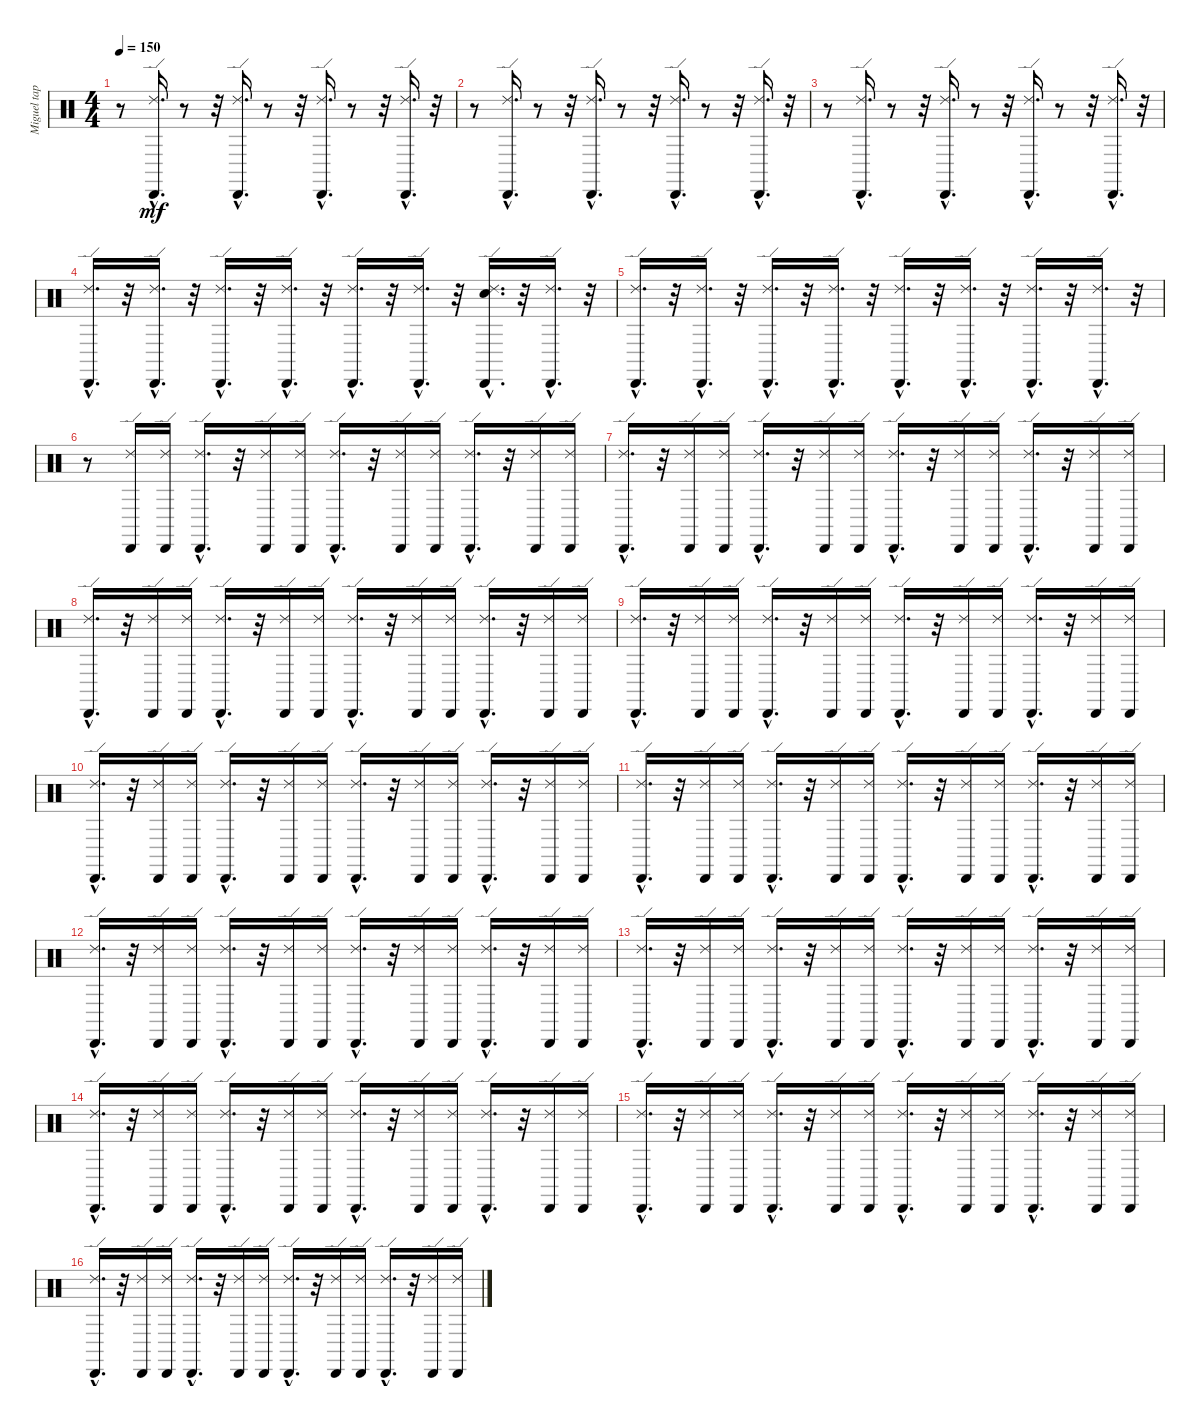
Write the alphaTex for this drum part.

\track ("Miguel tapia" "Miguel tap") {instrument percussion}
\staff {score}
\articulation defaults
\ts (4 4)
\tempo 150
\clef neutral
\ks c
r.8{dy mf} ("Cabasa (hit)"{hac} "Ride (edge) 2"{hac}).16{d} r.8 r.32 ("Ride (edge) 2"{hac} "Cabasa (hit)"{hac}).16{d} r.8 r.32 ("Cabasa (hit)"{hac} "Ride (edge) 2"{hac}).16{d} r.8 r.32 ("Ride (edge) 2"{hac} "Cabasa (hit)"{hac}).16{d} r.32 |
r.8 ("Cabasa (hit)"{hac} "Ride (edge) 2"{hac}).16{d} r.8 r.32 ("Cabasa (hit)"{hac} "Ride (edge) 2"{hac}).16{d} r.8 r.32 ("Cabasa (hit)"{hac} "Ride (edge) 2"{hac}).16{d} r.8 r.32 ("Ride (edge) 2"{hac} "Cabasa (hit)"{hac}).16{d} r.32 |
r.8 ("Cabasa (hit)"{hac} "Ride (edge) 2"{hac}).16{d} r.8 r.32 ("Cabasa (hit)"{hac} "Ride (edge) 2"{hac}).16{d} r.8 r.32 ("Cabasa (hit)"{hac} "Ride (edge) 2"{hac}).16{d} r.8 r.32 ("Ride (edge) 2"{hac} "Cabasa (hit)"{hac}).16{d} r.32 |
("Ride (edge) 2"{hac} "Cabasa (hit)"{hac}).16{d} r.32 ("Ride (edge) 2"{hac} "Cabasa (hit)"{hac}).16{d} r.32 ("Ride (edge) 2"{hac} "Cabasa (hit)"{hac}).16{d} r.32 ("Cabasa (hit)"{hac} "Ride (edge) 2"{hac}).16{d} r.32 ("Cabasa (hit)"{hac} "Ride (edge) 2"{hac}).16{d} r.32 ("Cabasa (hit)"{hac} "Ride (edge) 2"{hac}).16{d} r.32 ("Electric Snare (hit)"{hac} "Cabasa (hit)"{hac} "Ride (edge) 2"{hac}).16{d} r.32 ("Cabasa (hit)"{hac} "Ride (edge) 2"{hac}).16{d} r.32 |
("Ride (edge) 2"{hac} "Cabasa (hit)"{hac}).16{d} r.32 ("Ride (edge) 2"{hac} "Cabasa (hit)"{hac}).16{d} r.32 ("Cabasa (hit)"{hac} "Ride (edge) 2"{hac}).16{d} r.32 ("Ride (edge) 2"{hac} "Cabasa (hit)"{hac}).16{d} r.32 ("Ride (edge) 2"{hac} "Cabasa (hit)"{hac}).16{d} r.32 ("Ride (edge) 2"{hac} "Cabasa (hit)"{hac}).16{d} r.32 ("Ride (edge) 2"{hac} "Cabasa (hit)"{hac}).16{d} r.32 ("Ride (edge) 2"{hac} "Cabasa (hit)"{hac}).16{d} r.32 |
r.8 ("Ride (edge) 2" "Cabasa (hit)").16 ("Ride (edge) 2" "Cabasa (hit)").16 ("Ride (edge) 2"{hac} "Cabasa (hit)"{hac}).16{d} r.32 ("Ride (edge) 2" "Cabasa (hit)").16 ("Cabasa (hit)" "Ride (edge) 2").16 ("Ride (edge) 2"{hac} "Cabasa (hit)"{hac}).16{d} r.32 ("Ride (edge) 2" "Cabasa (hit)").16 ("Cabasa (hit)" "Ride (edge) 2").16 ("Cabasa (hit)"{hac} "Ride (edge) 2"{hac}).16{d} r.32 ("Cabasa (hit)" "Ride (edge) 2").16 ("Cabasa (hit)" "Ride (edge) 2").16 |
("Cabasa (hit)"{hac} "Ride (edge) 2"{hac}).16{d} r.32 ("Cabasa (hit)" "Ride (edge) 2").16 ("Ride (edge) 2" "Cabasa (hit)").16 ("Ride (edge) 2"{hac} "Cabasa (hit)"{hac}).16{d} r.32 ("Cabasa (hit)" "Ride (edge) 2").16 ("Ride (edge) 2" "Cabasa (hit)").16 ("Cabasa (hit)"{hac} "Ride (edge) 2"{hac}).16{d} r.32 ("Cabasa (hit)" "Ride (edge) 2").16 ("Cabasa (hit)" "Ride (edge) 2").16 ("Cabasa (hit)"{hac} "Ride (edge) 2"{hac}).16{d} r.32 ("Cabasa (hit)" "Ride (edge) 2").16 ("Cabasa (hit)" "Ride (edge) 2").16 |
("Ride (edge) 2"{hac} "Cabasa (hit)"{hac}).16{d} r.32 ("Cabasa (hit)" "Ride (edge) 2").16 ("Cabasa (hit)" "Ride (edge) 2").16 ("Ride (edge) 2"{hac} "Cabasa (hit)"{hac}).16{d} r.32 ("Cabasa (hit)" "Ride (edge) 2").16 ("Cabasa (hit)" "Ride (edge) 2").16 ("Ride (edge) 2"{hac} "Cabasa (hit)"{hac}).16{d} r.32 ("Cabasa (hit)" "Ride (edge) 2").16 ("Cabasa (hit)" "Ride (edge) 2").16 ("Cabasa (hit)"{hac} "Ride (edge) 2"{hac}).16{d} r.32 ("Ride (edge) 2" "Cabasa (hit)").16 ("Ride (edge) 2" "Cabasa (hit)").16 |
("Cabasa (hit)"{hac} "Ride (edge) 2"{hac}).16{d} r.32 ("Cabasa (hit)" "Ride (edge) 2").16 ("Cabasa (hit)" "Ride (edge) 2").16 ("Cabasa (hit)"{hac} "Ride (edge) 2"{hac}).16{d} r.32 ("Ride (edge) 2" "Cabasa (hit)").16 ("Cabasa (hit)" "Ride (edge) 2").16 ("Ride (edge) 2"{hac} "Cabasa (hit)"{hac}).16{d} r.32 ("Ride (edge) 2" "Cabasa (hit)").16 ("Cabasa (hit)" "Ride (edge) 2").16 ("Ride (edge) 2"{hac} "Cabasa (hit)"{hac}).16{d} r.32 ("Ride (edge) 2" "Cabasa (hit)").16 ("Ride (edge) 2" "Cabasa (hit)").16 |
("Cabasa (hit)"{hac} "Ride (edge) 2"{hac}).16{d} r.32 ("Cabasa (hit)" "Ride (edge) 2").16 ("Ride (edge) 2" "Cabasa (hit)").16 ("Ride (edge) 2"{hac} "Cabasa (hit)"{hac}).16{d} r.32 ("Ride (edge) 2" "Cabasa (hit)").16 ("Cabasa (hit)" "Ride (edge) 2").16 ("Cabasa (hit)"{hac} "Ride (edge) 2"{hac}).16{d} r.32 ("Ride (edge) 2" "Cabasa (hit)").16 ("Ride (edge) 2" "Cabasa (hit)").16 ("Cabasa (hit)"{hac} "Ride (edge) 2"{hac}).16{d} r.32 ("Ride (edge) 2" "Cabasa (hit)").16 ("Ride (edge) 2" "Cabasa (hit)").16 |
("Cabasa (hit)"{hac} "Ride (edge) 2"{hac}).16{d} r.32 ("Cabasa (hit)" "Ride (edge) 2").16 ("Ride (edge) 2" "Cabasa (hit)").16 ("Ride (edge) 2"{hac} "Cabasa (hit)"{hac}).16{d} r.32 ("Cabasa (hit)" "Ride (edge) 2").16 ("Ride (edge) 2" "Cabasa (hit)").16 ("Cabasa (hit)"{hac} "Ride (edge) 2"{hac}).16{d} r.32 ("Cabasa (hit)" "Ride (edge) 2").16 ("Cabasa (hit)" "Ride (edge) 2").16 ("Cabasa (hit)"{hac} "Ride (edge) 2"{hac}).16{d} r.32 ("Cabasa (hit)" "Ride (edge) 2").16 ("Cabasa (hit)" "Ride (edge) 2").16 |
("Ride (edge) 2"{hac} "Cabasa (hit)"{hac}).16{d} r.32 ("Cabasa (hit)" "Ride (edge) 2").16 ("Cabasa (hit)" "Ride (edge) 2").16 ("Cabasa (hit)"{hac} "Ride (edge) 2"{hac}).16{d} r.32 ("Cabasa (hit)" "Ride (edge) 2").16 ("Cabasa (hit)" "Ride (edge) 2").16 ("Cabasa (hit)"{hac} "Ride (edge) 2"{hac}).16{d} r.32 ("Cabasa (hit)" "Ride (edge) 2").16 ("Cabasa (hit)" "Ride (edge) 2").16 ("Ride (edge) 2"{hac} "Cabasa (hit)"{hac}).16{d} r.32 ("Cabasa (hit)" "Ride (edge) 2").16 ("Ride (edge) 2" "Cabasa (hit)").16 |
("Cabasa (hit)"{hac} "Ride (edge) 2"{hac}).16{d} r.32 ("Ride (edge) 2" "Cabasa (hit)").16 ("Cabasa (hit)" "Ride (edge) 2").16 ("Cabasa (hit)"{hac} "Ride (edge) 2"{hac}).16{d} r.32 ("Cabasa (hit)" "Ride (edge) 2").16 ("Cabasa (hit)" "Ride (edge) 2").16 ("Cabasa (hit)"{hac} "Ride (edge) 2"{hac}).16{d} r.32 ("Cabasa (hit)" "Ride (edge) 2").16 ("Cabasa (hit)" "Ride (edge) 2").16 ("Cabasa (hit)"{hac} "Ride (edge) 2"{hac}).16{d} r.32 ("Ride (edge) 2" "Cabasa (hit)").16 ("Cabasa (hit)" "Ride (edge) 2").16 |
("Ride (edge) 2"{hac} "Cabasa (hit)"{hac}).16{d} r.32 ("Ride (edge) 2" "Cabasa (hit)").16 ("Cabasa (hit)" "Ride (edge) 2").16 ("Ride (edge) 2"{hac} "Cabasa (hit)"{hac}).16{d} r.32 ("Ride (edge) 2" "Cabasa (hit)").16 ("Ride (edge) 2" "Cabasa (hit)").16 ("Ride (edge) 2"{hac} "Cabasa (hit)"{hac}).16{d} r.32 ("Ride (edge) 2" "Cabasa (hit)").16 ("Ride (edge) 2" "Cabasa (hit)").16 ("Ride (edge) 2"{hac} "Cabasa (hit)"{hac}).16{d} r.32 ("Cabasa (hit)" "Ride (edge) 2").16 ("Ride (edge) 2" "Cabasa (hit)").16 |
("Cabasa (hit)"{hac} "Ride (edge) 2"{hac}).16{d} r.32 ("Cabasa (hit)" "Ride (edge) 2").16 ("Ride (edge) 2" "Cabasa (hit)").16 ("Ride (edge) 2"{hac} "Cabasa (hit)"{hac}).16{d} r.32 ("Cabasa (hit)" "Ride (edge) 2").16 ("Ride (edge) 2" "Cabasa (hit)").16 ("Cabasa (hit)"{hac} "Ride (edge) 2"{hac}).16{d} r.32 ("Cabasa (hit)" "Ride (edge) 2").16 ("Cabasa (hit)" "Ride (edge) 2").16 ("Cabasa (hit)"{hac} "Ride (edge) 2"{hac}).16{d} r.32 ("Cabasa (hit)" "Ride (edge) 2").16 ("Cabasa (hit)" "Ride (edge) 2").16 |
("Ride (edge) 2"{hac} "Cabasa (hit)"{hac}).16{d} r.32 ("Cabasa (hit)" "Ride (edge) 2").16 ("Cabasa (hit)" "Ride (edge) 2").16 ("Ride (edge) 2"{hac} "Cabasa (hit)"{hac}).16{d} r.32 ("Cabasa (hit)" "Ride (edge) 2").16 ("Cabasa (hit)" "Ride (edge) 2").16 ("Ride (edge) 2"{hac} "Cabasa (hit)"{hac}).16{d} r.32 ("Cabasa (hit)" "Ride (edge) 2").16 ("Cabasa (hit)" "Ride (edge) 2").16 ("Cabasa (hit)"{hac} "Ride (edge) 2"{hac}).16{d} r.32 ("Ride (edge) 2" "Cabasa (hit)").16 ("Ride (edge) 2" "Cabasa (hit)").16
